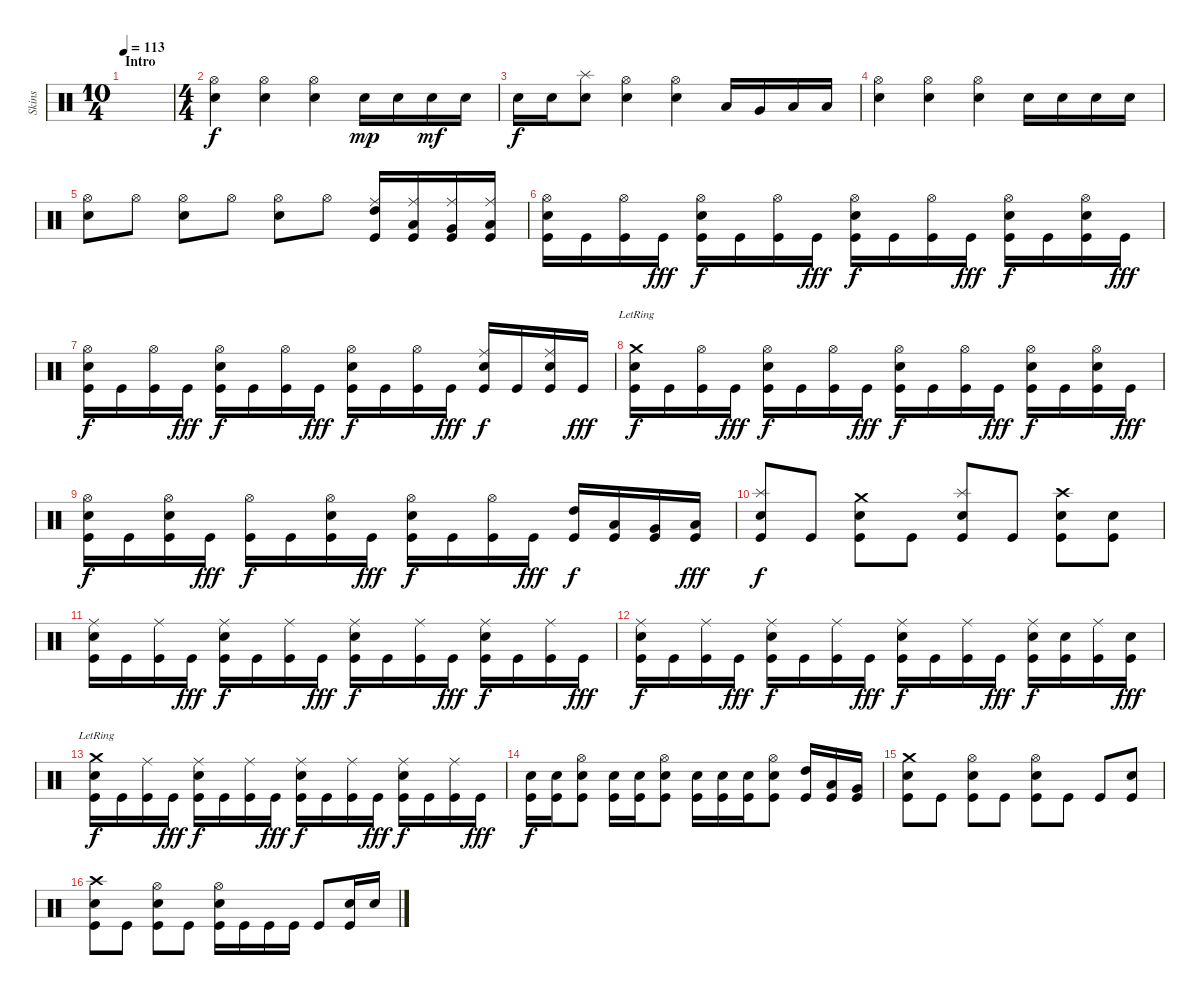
\track ("Skins" "Skins") {instrument percussion}
\staff {score}
\articulation defaults
\ts (10 4)
\section ("" "Intro")
\tempo 113
\clef neutral
\ks c
|
\ts (4 4)
("Hi-Hat (open)" "Electric Snare (hit)").4 ("Hi-Hat (open)" "Electric Snare (hit)").4 ("Hi-Hat (open)" "Electric Snare (hit)").4 "Snare (hit) 2".16{dy mp} "Snare (hit) 2".16 "Snare (hit) 2".16{dy mf} "Snare (hit) 2".16 |
"Snare (hit) 2".16{dy f} "Snare (hit) 2".16 ("Splash (hit)" "Electric Snare (hit)").8 ("Hi-Hat (open)" "Electric Snare (hit)").4 ("Hi-Hat (open)" "Electric Snare (hit)").4 "Low Tom (hit)".16 "Very Low Tom (hit)".16 "Low Tom (hit)".16 "Low Floor Tom (hit)".16 |
("Hi-Hat (open)" "Electric Snare (hit)").4 ("Hi-Hat (open)" "Electric Snare (hit)").4 ("Hi-Hat (open)" "Electric Snare (hit)").4 "Snare (hit) 2".16 "Snare (hit) 2".16 "Snare (hit) 2".16 "Snare (hit) 2".16 |
("Hi-Hat (open)" "Electric Snare (hit)").8 "Hi-Hat (open)".8 ("Hi-Hat (open)" "Electric Snare (hit)").8 "Hi-Hat (open)".8 ("Hi-Hat (open)" "Electric Snare (hit)").8 "Hi-Hat (open)".8 ("High Tom (hit)" "Ride (middle)" "Kick (hit)").16 ("Low Tom (hit)" "Ride (middle)" "Kick (hit)").16 ("Very Low Tom (hit)" "Ride (middle)" "Kick (hit)").16 ("Low Floor Tom (hit)" "Ride (middle)" "Kick (hit)").16 |
("Hi-Hat (open)" "Electric Snare (hit)" "Kick (hit)").16 "Kick (hit)".16 ("Hi-Hat (open)" "Kick (hit)").16 "Kick (hit)".16{dy fff} ("Hi-Hat (open)" "Electric Snare (hit)" "Kick (hit)").16{dy f} "Kick (hit)".16 ("Hi-Hat (open)" "Kick (hit)").16 "Kick (hit)".16{dy fff} ("Hi-Hat (open)" "Electric Snare (hit)" "Kick (hit)").16{dy f} "Kick (hit)".16 ("Hi-Hat (open)" "Kick (hit)").16 "Kick (hit)".16{dy fff} ("Hi-Hat (open)" "Snare (hit) 2" "Kick (hit)").16{dy f} "Kick (hit)".16 ("Hi-Hat (open)" "Snare (hit) 2" "Kick (hit)").16 "Kick (hit)".16{dy fff} |
("Hi-Hat (open)" "Electric Snare (hit)" "Kick (hit)").16{dy f} "Kick (hit)".16 ("Hi-Hat (open)" "Kick (hit)").16 "Kick (hit)".16{dy fff} ("Hi-Hat (open)" "Electric Snare (hit)" "Kick (hit)").16{dy f} "Kick (hit)".16 ("Hi-Hat (open)" "Kick (hit)").16 "Kick (hit)".16{dy fff} ("Hi-Hat (open)" "Electric Snare (hit)" "Kick (hit)").16{dy f} "Kick (hit)".16 ("Hi-Hat (open)" "Kick (hit)").16 "Kick (hit)".16{dy fff} ("Ride (middle)" "Snare (hit) 2" "Kick (hit)").16{dy f} "Kick (hit)".16 ("Ride (middle)" "Snare (hit) 2" "Kick (hit)").16 "Kick (hit)".16{dy fff} |
("Electric Snare (hit)" "Crash medium (hit)"{lr} "Kick (hit)").16{dy f} "Kick (hit)".16 ("Hi-Hat (open)" "Kick (hit)").16 "Kick (hit)".16{dy fff} ("Hi-Hat (open)" "Electric Snare (hit)" "Kick (hit)").16{dy f} "Kick (hit)".16 ("Hi-Hat (open)" "Kick (hit)").16 "Kick (hit)".16{dy fff} ("Hi-Hat (open)" "Electric Snare (hit)" "Kick (hit)").16{dy f} "Kick (hit)".16 ("Hi-Hat (open)" "Kick (hit)").16 "Kick (hit)".16{dy fff} ("Hi-Hat (open)" "Snare (hit) 2" "Kick (hit)").16{dy f} "Kick (hit)".16 ("Hi-Hat (open)" "Snare (hit) 2" "Kick (hit)").16 "Kick (hit)".16{dy fff} |
("Hi-Hat (open)" "Electric Snare (hit)" "Kick (hit)").16{dy f} "Kick (hit)".16 ("Hi-Hat (open)" "Electric Snare (hit)" "Kick (hit)").16 "Kick (hit)".16{dy fff} ("Hi-Hat (open)" "Kick (hit)").16{dy f} "Kick (hit)".16 ("Hi-Hat (open)" "Electric Snare (hit)" "Kick (hit)").16 "Kick (hit)".16{dy fff} ("Hi-Hat (open)" "Electric Snare (hit)" "Kick (hit)").16{dy f} "Kick (hit)".16 ("Hi-Hat (open)" "Kick (hit)").16 "Kick (hit)".16{dy fff} ("High Tom (hit)" "Kick (hit)").16{dy f} ("Low Tom (hit)" "Kick (hit)").16 ("Very Low Tom (hit)" "Kick (hit)").16 ("Low Floor Tom (hit)" "Kick (hit)").16{dy fff} |
("Splash (hit)" "Snare (hit) 2" "Kick (hit)").8{dy f} "Kick (hit)".8 ("Crash medium (hit)" "Snare (hit) 2" "Kick (hit)").8 "Kick (hit)".8 ("Splash (hit)" "Snare (hit) 2" "Kick (hit)").8 "Kick (hit)".8 ("Crash high (hit)" "Snare (hit) 2" "Kick (hit)").8 ("Snare (hit) 2" "Kick (hit)").8 |
("Ride (middle)" "Snare (hit) 2" "Kick (hit)").16 "Kick (hit)".16 ("Ride (middle)" "Kick (hit)").16 "Kick (hit)".16{dy fff} ("Ride (middle)" "Snare (hit) 2" "Kick (hit)").16{dy f} "Kick (hit)".16 ("Ride (middle)" "Kick (hit)").16 "Kick (hit)".16{dy fff} ("Ride (middle)" "Snare (hit) 2" "Kick (hit)").16{dy f} "Kick (hit)".16 ("Ride (middle)" "Kick (hit)").16 "Kick (hit)".16{dy fff} ("Ride (middle)" "Snare (hit) 2" "Kick (hit)").16{dy f} "Kick (hit)".16 ("Ride (middle)" "Kick (hit)").16 "Kick (hit)".16{dy fff} |
("Ride (middle)" "Snare (hit) 2" "Kick (hit)").16{dy f} "Kick (hit)".16 ("Ride (middle)" "Kick (hit)").16 "Kick (hit)".16{dy fff} ("Ride (middle)" "Snare (hit) 2" "Kick (hit)").16{dy f} "Kick (hit)".16 ("Ride (middle)" "Kick (hit)").16 "Kick (hit)".16{dy fff} ("Ride (middle)" "Snare (hit) 2" "Kick (hit)").16{dy f} "Kick (hit)".16 ("Ride (middle)" "Kick (hit)").16 "Kick (hit)".16{dy fff} ("Ride (middle)" "Snare (hit) 2" "Kick (hit)").16{dy f} ("Snare (hit) 2" "Kick (hit)").16 ("Ride (middle)" "Kick (hit)").16 ("Snare (hit) 2" "Kick (hit)").16{dy fff} |
("Snare (hit) 2" "Crash medium (hit)"{lr} "Kick (hit)").16{dy f} "Kick (hit)".16 ("Ride (middle)" "Kick (hit)").16 "Kick (hit)".16{dy fff} ("Ride (middle)" "Snare (hit) 2" "Kick (hit)").16{dy f} "Kick (hit)".16 ("Ride (middle)" "Kick (hit)").16 "Kick (hit)".16{dy fff} ("Ride (middle)" "Snare (hit) 2" "Kick (hit)").16{dy f} "Kick (hit)".16 ("Ride (middle)" "Kick (hit)").16 "Kick (hit)".16{dy fff} ("Ride (middle)" "Snare (hit) 2" "Kick (hit)").16{dy f} "Kick (hit)".16 ("Ride (middle)" "Kick (hit)").16 "Kick (hit)".16{dy fff} |
("Snare (hit) 2" "Kick (hit)").16{dy f} ("Snare (hit) 2" "Kick (hit)").16 ("Hi-Hat (open)" "Electric Snare (hit)" "Kick (hit)").8 ("Snare (hit) 2" "Kick (hit)").16 ("Snare (hit) 2" "Kick (hit)").16 ("Hi-Hat (open)" "Electric Snare (hit)" "Kick (hit)").8 ("Snare (hit) 2" "Kick (hit)").16 ("Snare (hit) 2" "Kick (hit)").16 ("Snare (hit) 2" "Kick (hit)").16 ("Hi-Hat (open)" "Electric Snare (hit)" "Kick (hit)").8 ("High Tom (hit)" "Kick (hit)").16 ("Low Tom (hit)" "Kick (hit)").16 ("Very Low Tom (hit)" "Kick (hit)").16 |
("Crash medium (hit)" "Electric Snare (hit)" "Kick (hit)").8 "Kick (hit)".8 ("Hi-Hat (open)" "Electric Snare (hit)" "Kick (hit)").8 "Kick (hit)".8 ("Hi-Hat (open)" "Electric Snare (hit)" "Kick (hit)").8 "Kick (hit)".8 "Kick (hit)".8 ("Electric Snare (hit)" "Kick (hit)").8 |
("Crash high (hit)" "Electric Snare (hit)" "Kick (hit)").8 "Kick (hit)".8 ("Hi-Hat (open)" "Electric Snare (hit)" "Kick (hit)").8 "Kick (hit)".8 ("Hi-Hat (open)" "Electric Snare (hit)" "Kick (hit)").16 "Kick (hit)".16 "Kick (hit)".16 "Kick (hit)".16 "Kick (hit)".8 ("Snare (hit) 2" "Kick (hit)").16 "Snare (hit) 2".16
